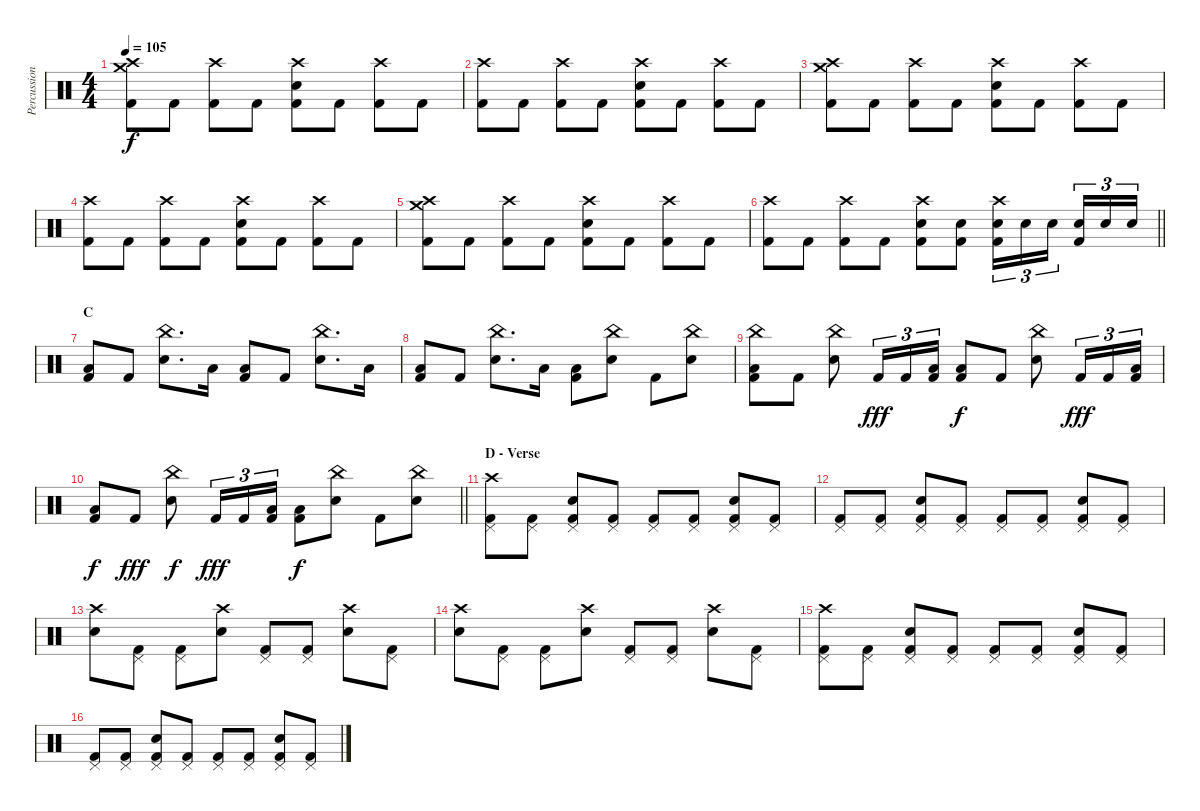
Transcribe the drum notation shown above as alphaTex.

\track ("Percussions" "Percussion") {instrument percussion}
\staff {score}
\articulation defaults
\ts (4 4)
\tempo 105
\clef neutral
\ks c
("Crash medium (hit)" "Crash high (hit)" "Kick (hit) 2").8{dy f} "Kick (hit) 2".8 ("Crash high (hit)" "Kick (hit) 2").8 "Kick (hit) 2".8 ("Crash high (hit)" "Snare (hit) 2" "Kick (hit) 2").8 "Kick (hit) 2".8 ("Crash high (hit)" "Kick (hit) 2").8 "Kick (hit) 2".8 |
("Crash high (hit)" "Kick (hit) 2").8 "Kick (hit) 2".8 ("Crash high (hit)" "Kick (hit) 2").8 "Kick (hit) 2".8 ("Crash high (hit)" "Snare (hit) 2" "Kick (hit) 2").8 "Kick (hit) 2".8 ("Crash high (hit)" "Kick (hit) 2").8 "Kick (hit) 2".8 |
("Crash medium (hit)" "Crash high (hit)" "Kick (hit) 2").8 "Kick (hit) 2".8 ("Crash high (hit)" "Kick (hit) 2").8 "Kick (hit) 2".8 ("Crash high (hit)" "Snare (hit) 2" "Kick (hit) 2").8 "Kick (hit) 2".8 ("Crash high (hit)" "Kick (hit) 2").8 "Kick (hit) 2".8 |
("Crash high (hit)" "Kick (hit) 2").8 "Kick (hit) 2".8 ("Crash high (hit)" "Kick (hit) 2").8 "Kick (hit) 2".8 ("Crash high (hit)" "Snare (hit) 2" "Kick (hit) 2").8 "Kick (hit) 2".8 ("Crash high (hit)" "Kick (hit) 2").8 "Kick (hit) 2".8 |
("Crash medium (hit)" "Crash high (hit)" "Kick (hit) 2").8 "Kick (hit) 2".8 ("Crash high (hit)" "Kick (hit) 2").8 "Kick (hit) 2".8 ("Crash high (hit)" "Snare (hit) 2" "Kick (hit) 2").8 "Kick (hit) 2".8 ("Crash high (hit)" "Kick (hit) 2").8 "Kick (hit) 2".8 |
\barLineRight lightlight
("Crash high (hit)" "Kick (hit) 2").8 "Kick (hit) 2".8 ("Crash high (hit)" "Kick (hit) 2").8 "Kick (hit) 2".8 ("Crash high (hit)" "Snare (hit) 2" "Kick (hit) 2").8 ("Snare (hit) 2" "Kick (hit) 2").8 ("Crash high (hit)" "Snare (hit) 2" "Kick (hit) 2").16{tu (3 2)} "Snare (hit) 2".16{tu (3 2)} "Snare (hit) 2".16{tu (3 2) beam splitsecondary} ("Snare (hit) 2" "Kick (hit) 2").16{tu (3 2)} "Snare (hit) 2".16{tu (3 2)} "Snare (hit) 2".16{tu (3 2)} |
\section ("" "C")
("Low Tom (hit)" "Kick (hit) 2").8 "Kick (hit) 2".8 ("China (hit)" "Snare (hit) 2").8{d} "Low Tom (hit)".16 ("Low Tom (hit)" "Kick (hit) 2").8 "Kick (hit) 2".8 ("China (hit)" "Snare (hit) 2").8{d} "Low Tom (hit)".16 |
("Low Tom (hit)" "Kick (hit) 2").8 "Kick (hit) 2".8 ("China (hit)" "Snare (hit) 2").8{d} "Low Tom (hit)".16 ("Low Tom (hit)" "Kick (hit) 2").8 ("China (hit)" "Snare (hit) 2").8 "Kick (hit) 2".8 ("China (hit)" "Snare (hit) 2").8 |
("China (hit)" "Low Tom (hit)" "Kick (hit) 2").8 "Kick (hit) 2".8 ("China (hit)" "Snare (hit) 2").8 "Kick (hit) 2".16{tu (3 2) dy fff} "Kick (hit) 2".16{tu (3 2)} ("Low Tom (hit)" "Kick (hit) 2").16{tu (3 2)} ("Low Tom (hit)" "Kick (hit) 2").8{dy f} "Kick (hit) 2".8 ("China (hit)" "Snare (hit) 2").8 "Kick (hit) 2".16{tu (3 2) dy fff} "Kick (hit) 2".16{tu (3 2)} ("Low Tom (hit)" "Kick (hit) 2").16{tu (3 2)} |
\barLineRight lightlight
("Low Tom (hit)" "Kick (hit) 2").8{dy f} "Kick (hit) 2".8{dy fff} ("China (hit)" "Snare (hit) 2").8{dy f} "Kick (hit) 2".16{tu (3 2) dy fff} "Kick (hit) 2".16{tu (3 2)} ("Low Tom (hit)" "Kick (hit) 2").16{tu (3 2)} ("Low Tom (hit)" "Kick (hit) 2").8{dy f} ("China (hit)" "Snare (hit) 2").8 "Kick (hit) 2".8 ("China (hit)" "Snare (hit) 2").8 |
\section ("" "D - Verse")
("Crash high (hit)" "Pedal Hi-Hat (hit)" "Kick (hit) 2").8 ("Pedal Hi-Hat (hit)" "Kick (hit) 2").8 ("Pedal Hi-Hat (hit)" "Snare (hit) 2" "Kick (hit) 2").8 ("Pedal Hi-Hat (hit)" "Kick (hit) 2").8 ("Pedal Hi-Hat (hit)" "Kick (hit) 2").8 ("Pedal Hi-Hat (hit)" "Kick (hit) 2").8 ("Pedal Hi-Hat (hit)" "Snare (hit) 2" "Kick (hit) 2").8 ("Pedal Hi-Hat (hit)" "Kick (hit) 2").8 |
("Pedal Hi-Hat (hit)" "Kick (hit) 2").8 ("Pedal Hi-Hat (hit)" "Kick (hit) 2").8 ("Pedal Hi-Hat (hit)" "Snare (hit) 2" "Kick (hit) 2").8 ("Pedal Hi-Hat (hit)" "Kick (hit) 2").8 ("Pedal Hi-Hat (hit)" "Kick (hit) 2").8 ("Pedal Hi-Hat (hit)" "Kick (hit) 2").8 ("Pedal Hi-Hat (hit)" "Snare (hit) 2" "Kick (hit) 2").8 ("Pedal Hi-Hat (hit)" "Kick (hit) 2").8 |
("Crash high (hit)" "Snare (hit) 2").8 ("Pedal Hi-Hat (hit)" "Kick (hit) 2").8 ("Pedal Hi-Hat (hit)" "Kick (hit) 2").8 ("Crash high (hit)" "Snare (hit) 2").8 ("Pedal Hi-Hat (hit)" "Kick (hit) 2").8 ("Pedal Hi-Hat (hit)" "Kick (hit) 2").8 ("Crash high (hit)" "Snare (hit) 2").8 ("Pedal Hi-Hat (hit)" "Kick (hit) 2").8 |
("Crash high (hit)" "Snare (hit) 2").8 ("Pedal Hi-Hat (hit)" "Kick (hit) 2").8 ("Pedal Hi-Hat (hit)" "Kick (hit) 2").8 ("Crash high (hit)" "Snare (hit) 2").8 ("Pedal Hi-Hat (hit)" "Kick (hit) 2").8 ("Pedal Hi-Hat (hit)" "Kick (hit) 2").8 ("Crash high (hit)" "Snare (hit) 2").8 ("Pedal Hi-Hat (hit)" "Kick (hit) 2").8 |
("Crash high (hit)" "Pedal Hi-Hat (hit)" "Kick (hit) 2").8 ("Pedal Hi-Hat (hit)" "Kick (hit) 2").8 ("Pedal Hi-Hat (hit)" "Snare (hit) 2" "Kick (hit) 2").8 ("Pedal Hi-Hat (hit)" "Kick (hit) 2").8 ("Pedal Hi-Hat (hit)" "Kick (hit) 2").8 ("Pedal Hi-Hat (hit)" "Kick (hit) 2").8 ("Pedal Hi-Hat (hit)" "Snare (hit) 2" "Kick (hit) 2").8 ("Pedal Hi-Hat (hit)" "Kick (hit) 2").8 |
("Pedal Hi-Hat (hit)" "Kick (hit) 2").8 ("Pedal Hi-Hat (hit)" "Kick (hit) 2").8 ("Pedal Hi-Hat (hit)" "Snare (hit) 2" "Kick (hit) 2").8 ("Pedal Hi-Hat (hit)" "Kick (hit) 2").8 ("Pedal Hi-Hat (hit)" "Kick (hit) 2").8 ("Pedal Hi-Hat (hit)" "Kick (hit) 2").8 ("Pedal Hi-Hat (hit)" "Snare (hit) 2" "Kick (hit) 2").8 ("Pedal Hi-Hat (hit)" "Kick (hit) 2").8
